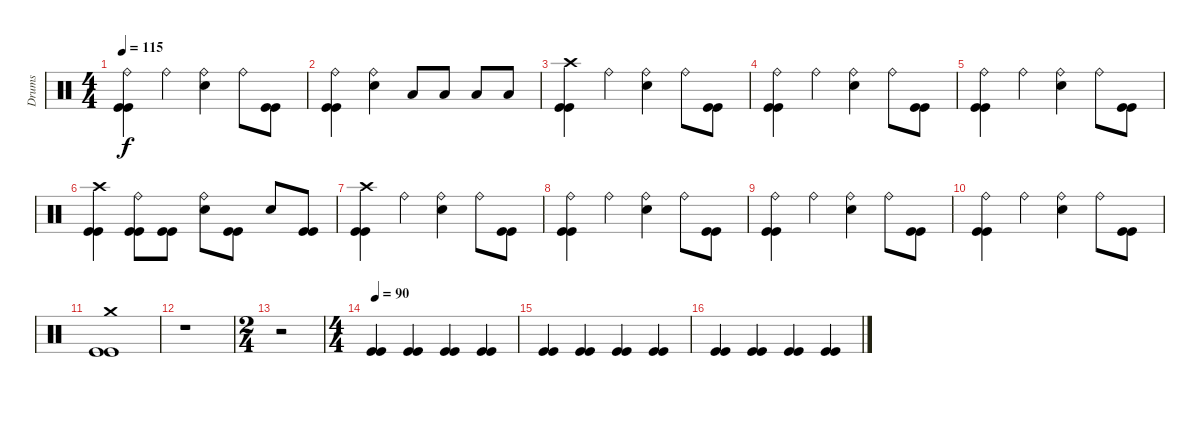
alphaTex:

\track ("Drums" "Drums") {instrument percussion}
\staff {score}
\articulation defaults
\ts (4 4)
\tempo 115
\clef neutral
\ks c
("Kick (hit)" "Kick (hit)" "Ride (bell)").4{dy f} "Ride (bell)".4 ("Snare (hit) 2" "Ride (bell)").4 "Ride (bell)".8 ("Kick (hit)" "Kick (hit)").8 |
("Kick (hit)" "Kick (hit)" "Ride (bell)").4 ("Snare (hit) 2" "Ride (bell)").4 "Low Tom (hit)".8 "Low Tom (hit)".8 "Low Floor Tom (hit)".8 "Low Floor Tom (hit)".8 |
("Kick (hit)" "Kick (hit)" "Crash high (hit)").4 "Ride (bell)".4 ("Snare (hit) 2" "Ride (bell)").4 "Ride (bell)".8 ("Kick (hit)" "Kick (hit)").8 |
("Kick (hit)" "Kick (hit)" "Ride (bell)").4 "Ride (bell)".4 ("Snare (hit) 2" "Ride (bell)").4 "Ride (bell)".8 ("Kick (hit)" "Kick (hit)").8 |
("Kick (hit)" "Kick (hit)" "Ride (bell)").4 "Ride (bell)".4 ("Snare (hit) 2" "Ride (bell)").4 "Ride (bell)".8 ("Kick (hit)" "Kick (hit)").8 |
("Kick (hit)" "Kick (hit)" "Crash high (hit)").4 ("Kick (hit)" "Kick (hit)" "Ride (bell)").8 ("Kick (hit)" "Kick (hit)").8 ("Snare (hit) 2" "Ride (bell)").8 ("Kick (hit)" "Kick (hit)").8 "Snare (hit) 2".8 ("Kick (hit)" "Kick (hit)").8 |
("Kick (hit)" "Kick (hit)" "Crash high (hit)").4 "Ride (bell)".4 ("Snare (hit) 2" "Ride (bell)").4 "Ride (bell)".8 ("Kick (hit)" "Kick (hit)").8 |
("Kick (hit)" "Kick (hit)" "Ride (bell)").4 "Ride (bell)".4 ("Snare (hit) 2" "Ride (bell)").4 "Ride (bell)".8 ("Kick (hit)" "Kick (hit)").8 |
("Kick (hit)" "Kick (hit)" "Ride (bell)").4 "Ride (bell)".4 ("Snare (hit) 2" "Ride (bell)").4 "Ride (bell)".8 ("Kick (hit)" "Kick (hit)").8 |
("Kick (hit)" "Kick (hit)" "Ride (bell)").4 "Ride (bell)".4 ("Snare (hit) 2" "Ride (bell)").4 "Ride (bell)".8 ("Kick (hit)" "Kick (hit)").8 |
("Kick (hit)" "Kick (hit)" "Crash medium (hit)").1 |
r.1 |
\ts (2 4)
r.2 |
\ts (4 4)
\tempo 90
("Kick (hit)" "Kick (hit)").4 ("Kick (hit)" "Kick (hit)").4 ("Kick (hit)" "Kick (hit)").4 ("Kick (hit)" "Kick (hit)").4 |
("Kick (hit)" "Kick (hit)").4 ("Kick (hit)" "Kick (hit)").4 ("Kick (hit)" "Kick (hit)").4 ("Kick (hit)" "Kick (hit)").4 |
("Kick (hit)" "Kick (hit)").4 ("Kick (hit)" "Kick (hit)").4 ("Kick (hit)" "Kick (hit)").4 ("Kick (hit)" "Kick (hit)").4
